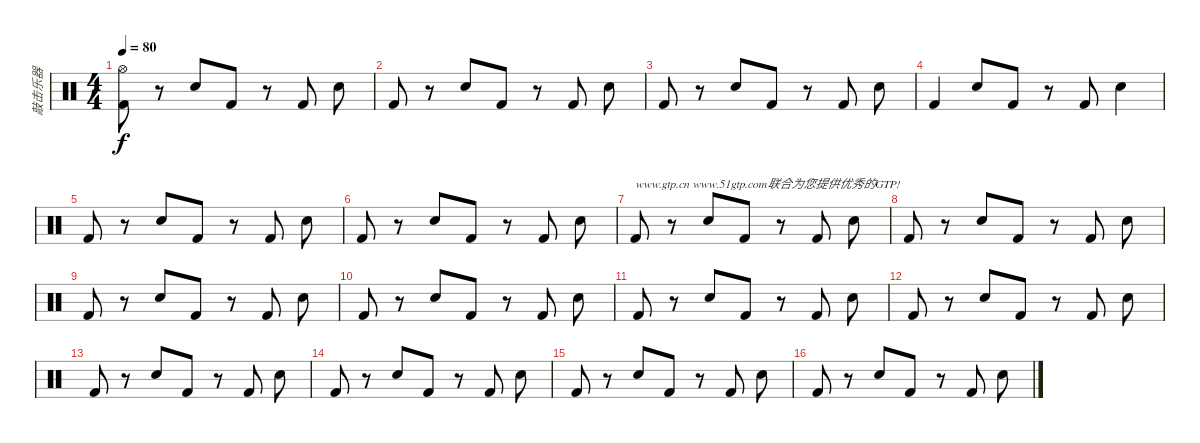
\track ("敲击乐器" "敲击乐器") {instrument percussion}
\staff {score}
\articulation defaults
\ts (4 4)
\tempo 80
\clef neutral
\ks c
("Kick (hit) 2" "Hi-Hat (open)").8{dy f} r.8 "Electric Snare (hit)".8 "Kick (hit) 2".8 r.8 "Kick (hit) 2".8 "Electric Snare (hit)".8 |
"Kick (hit) 2".8 r.8 "Electric Snare (hit)".8 "Kick (hit) 2".8 r.8 "Kick (hit) 2".8 "Electric Snare (hit)".8 |
"Kick (hit) 2".8 r.8 "Electric Snare (hit)".8 "Kick (hit) 2".8 r.8 "Kick (hit) 2".8 "Electric Snare (hit)".8 |
"Kick (hit) 2".4 "Electric Snare (hit)".8 "Kick (hit) 2".8 r.8 "Kick (hit) 2".8 "Electric Snare (hit)".4 |
"Kick (hit) 2".8 r.8 "Electric Snare (hit)".8 "Kick (hit) 2".8 r.8 "Kick (hit) 2".8 "Electric Snare (hit)".8 |
"Kick (hit) 2".8 r.8 "Electric Snare (hit)".8 "Kick (hit) 2".8 r.8 "Kick (hit) 2".8 "Electric Snare (hit)".8 |
"Kick (hit) 2".8{txt "www.gtp.cn www.51gtp.com联合为您提供优秀的GTP!"} r.8 "Electric Snare (hit)".8 "Kick (hit) 2".8 r.8 "Kick (hit) 2".8 "Electric Snare (hit)".8 |
"Kick (hit) 2".8 r.8 "Electric Snare (hit)".8 "Kick (hit) 2".8 r.8 "Kick (hit) 2".8 "Electric Snare (hit)".8 |
"Kick (hit) 2".8 r.8 "Electric Snare (hit)".8 "Kick (hit) 2".8 r.8 "Kick (hit) 2".8 "Electric Snare (hit)".8 |
"Kick (hit) 2".8 r.8 "Electric Snare (hit)".8 "Kick (hit) 2".8 r.8 "Kick (hit) 2".8 "Electric Snare (hit)".8 |
"Kick (hit) 2".8 r.8 "Electric Snare (hit)".8 "Kick (hit) 2".8 r.8 "Kick (hit) 2".8 "Electric Snare (hit)".8 |
"Kick (hit) 2".8 r.8 "Electric Snare (hit)".8 "Kick (hit) 2".8 r.8 "Kick (hit) 2".8 "Electric Snare (hit)".8 |
"Kick (hit) 2".8 r.8 "Electric Snare (hit)".8 "Kick (hit) 2".8 r.8 "Kick (hit) 2".8 "Electric Snare (hit)".8 |
"Kick (hit) 2".8 r.8 "Electric Snare (hit)".8 "Kick (hit) 2".8 r.8 "Kick (hit) 2".8 "Electric Snare (hit)".8 |
"Kick (hit) 2".8 r.8 "Electric Snare (hit)".8 "Kick (hit) 2".8 r.8 "Kick (hit) 2".8 "Electric Snare (hit)".8 |
"Kick (hit) 2".8 r.8 "Electric Snare (hit)".8 "Kick (hit) 2".8 r.8 "Kick (hit) 2".8 "Electric Snare (hit)".8
